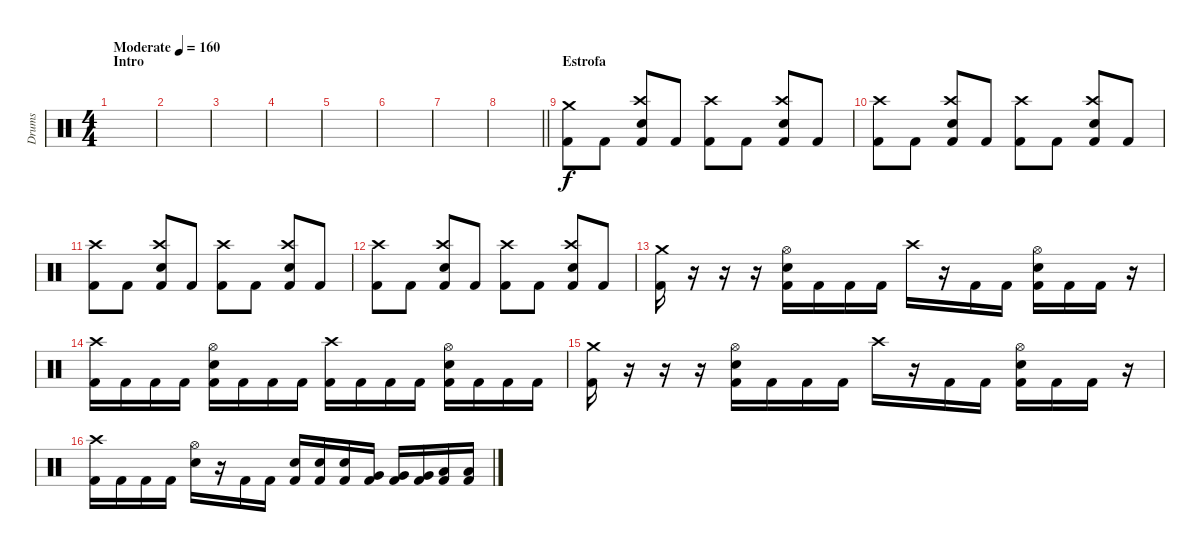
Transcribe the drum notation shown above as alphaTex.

\track ("Drums" "Drums") {instrument percussion}
\staff {score}
\articulation defaults
\ts (4 4)
\section ("" "Intro")
\tempo (160 "Moderate")
\clef neutral
\ks c
|
|
|
|
|
|
|
\barLineRight lightlight
|
\section ("" "Estrofa")
("Crash medium (hit)" "Kick (hit) 2").8{volume 16} "Kick (hit) 2".8 ("Crash high (hit)" "Electric Snare (hit)" "Kick (hit) 2").8 "Kick (hit) 2".8 ("Crash high (hit)" "Kick (hit) 2").8 "Kick (hit) 2".8 ("Crash high (hit)" "Electric Snare (hit)" "Kick (hit) 2").8 "Kick (hit) 2".8 |
("Crash high (hit)" "Kick (hit) 2").8 "Kick (hit) 2".8 ("Crash high (hit)" "Electric Snare (hit)" "Kick (hit) 2").8 "Kick (hit) 2".8 ("Crash high (hit)" "Kick (hit) 2").8 "Kick (hit) 2".8 ("Crash high (hit)" "Electric Snare (hit)" "Kick (hit) 2").8 "Kick (hit) 2".8 |
("Crash high (hit)" "Kick (hit) 2").8 "Kick (hit) 2".8 ("Crash high (hit)" "Electric Snare (hit)" "Kick (hit) 2").8 "Kick (hit) 2".8 ("Crash high (hit)" "Kick (hit) 2").8 "Kick (hit) 2".8 ("Crash high (hit)" "Electric Snare (hit)" "Kick (hit) 2").8 "Kick (hit) 2".8 |
("Crash high (hit)" "Kick (hit) 2").8 "Kick (hit) 2".8 ("Crash high (hit)" "Electric Snare (hit)" "Kick (hit) 2").8 "Kick (hit) 2".8 ("Crash high (hit)" "Kick (hit) 2").8 "Kick (hit) 2".8 ("Crash high (hit)" "Electric Snare (hit)" "Kick (hit) 2").8 "Kick (hit) 2".8 |
("Crash medium (hit)" "Kick (hit) 2").16 r.16 r.16 r.16 ("Hi-Hat (open)" "Electric Snare (hit)" "Kick (hit) 2").16 "Kick (hit) 2".16 "Kick (hit) 2".16 "Kick (hit) 2".16 "Crash high (hit)".16 r.16 "Kick (hit) 2".16 "Kick (hit) 2".16 ("Hi-Hat (open)" "Electric Snare (hit)" "Kick (hit) 2").16 "Kick (hit) 2".16 "Kick (hit) 2".16 r.16 |
("Crash high (hit)" "Kick (hit) 2").16 "Kick (hit) 2".16 "Kick (hit) 2".16 "Kick (hit) 2".16 ("Hi-Hat (open)" "Electric Snare (hit)" "Kick (hit) 2").16 "Kick (hit) 2".16 "Kick (hit) 2".16 "Kick (hit) 2".16 ("Crash high (hit)" "Kick (hit) 2").16 "Kick (hit) 2".16 "Kick (hit) 2".16 "Kick (hit) 2".16 ("Hi-Hat (open)" "Electric Snare (hit)" "Kick (hit) 2").16 "Kick (hit) 2".16 "Kick (hit) 2".16 "Kick (hit) 2".16 |
("Crash medium (hit)" "Kick (hit) 2").16 r.16 r.16 r.16 ("Hi-Hat (open)" "Electric Snare (hit)" "Kick (hit) 2").16 "Kick (hit) 2".16 "Kick (hit) 2".16 "Kick (hit) 2".16 "Crash high (hit)".16 r.16 "Kick (hit) 2".16 "Kick (hit) 2".16 ("Hi-Hat (open)" "Electric Snare (hit)" "Kick (hit) 2").16 "Kick (hit) 2".16 "Kick (hit) 2".16 r.16 |
("Crash high (hit)" "Kick (hit) 2").16 "Kick (hit) 2".16 "Kick (hit) 2".16 "Kick (hit) 2".16 ("Hi-Hat (open)" "Electric Snare (hit)").16 r.16 "Kick (hit) 2".16 "Kick (hit) 2".16 ("Electric Snare (hit)" "Kick (hit) 2").16 ("Electric Snare (hit)" "Kick (hit) 2").16 ("Electric Snare (hit)" "Kick (hit) 2").16 ("Very Low Tom (hit)" "Kick (hit) 2").16 ("Very Low Tom (hit)" "Kick (hit) 2").16 ("Very Low Tom (hit)" "Kick (hit) 2").16 ("Low Floor Tom (hit)" "Kick (hit) 2").16 ("Low Floor Tom (hit)" "Kick (hit) 2").16
